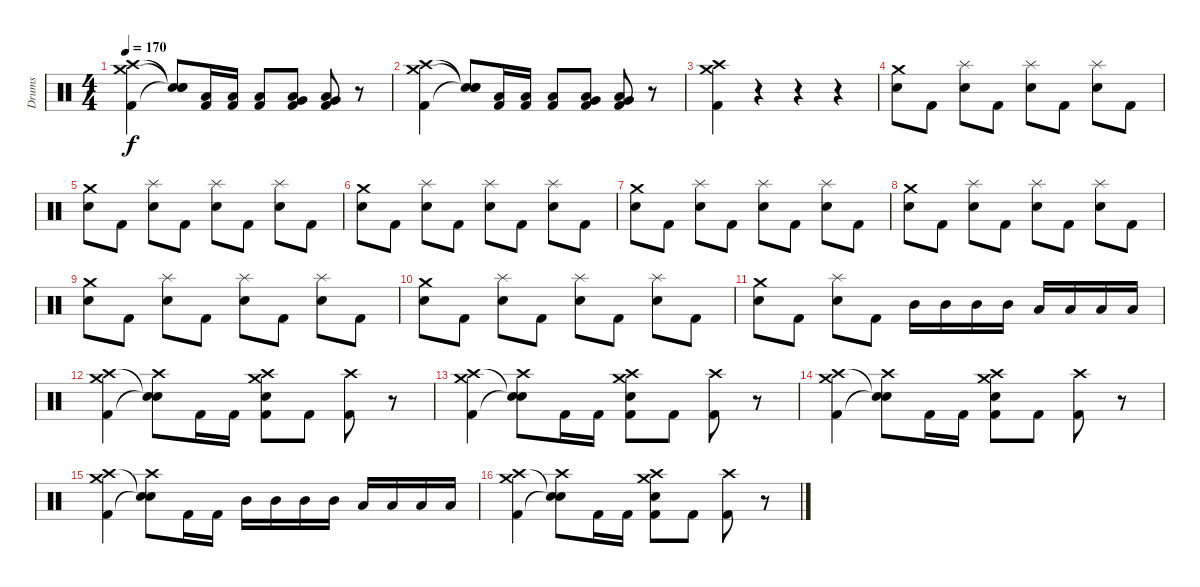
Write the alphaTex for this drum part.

\track ("Drums" "Drums") {instrument percussion}
\staff {score}
\articulation defaults
\ts (4 4)
\tempo 170
\clef neutral
\ks c
("Crash medium (hit)" "Crash high (hit)" "Kick (hit) 2").4{dy f} ("Snare (hit)"{t} "Snare (hit)"{t} "Snare (hit)"{t}).8 ("Low Tom (hit)" "Kick (hit) 2").16 ("Low Tom (hit)" "Kick (hit) 2").16 ("Low Tom (hit)" "Kick (hit) 2").8 ("Low Tom (hit)" "Very Low Tom (hit)" "Kick (hit) 2").8 ("Low Tom (hit)" "Very Low Tom (hit)" "Kick (hit) 2").8 r.8 |
("Crash medium (hit)" "Crash high (hit)" "Kick (hit) 2").4 ("Snare (hit)"{t} "Snare (hit)"{t} "Snare (hit)"{t}).8 ("Low Tom (hit)" "Kick (hit) 2").16 ("Low Tom (hit)" "Kick (hit) 2").16 ("Low Tom (hit)" "Kick (hit) 2").8 ("Low Tom (hit)" "Very Low Tom (hit)" "Kick (hit) 2").8 ("Low Tom (hit)" "Very Low Tom (hit)" "Kick (hit) 2").8 r.8 |
("Crash medium (hit)" "Crash high (hit)" "Kick (hit) 2").4 r.4 r.4 r.4 |
("Crash medium (hit)" "Snare (hit) 2").8 "Kick (hit) 2".8 ("Splash (hit)" "Snare (hit) 2").8 "Kick (hit) 2".8 ("Splash (hit)" "Snare (hit) 2").8 "Kick (hit) 2".8 ("Splash (hit)" "Snare (hit) 2").8 "Kick (hit) 2".8 |
("Crash medium (hit)" "Snare (hit) 2").8 "Kick (hit) 2".8 ("Splash (hit)" "Snare (hit) 2").8 "Kick (hit) 2".8 ("Splash (hit)" "Snare (hit) 2").8 "Kick (hit) 2".8 ("Splash (hit)" "Snare (hit) 2").8 "Kick (hit) 2".8 |
("Crash medium (hit)" "Snare (hit) 2").8 "Kick (hit) 2".8 ("Splash (hit)" "Snare (hit) 2").8 "Kick (hit) 2".8 ("Splash (hit)" "Snare (hit) 2").8 "Kick (hit) 2".8 ("Splash (hit)" "Snare (hit) 2").8 "Kick (hit) 2".8 |
("Crash medium (hit)" "Snare (hit) 2").8 "Kick (hit) 2".8 ("Splash (hit)" "Snare (hit) 2").8 "Kick (hit) 2".8 ("Splash (hit)" "Snare (hit) 2").8 "Kick (hit) 2".8 ("Splash (hit)" "Snare (hit) 2").8 "Kick (hit) 2".8 |
("Crash medium (hit)" "Snare (hit) 2").8 "Kick (hit) 2".8 ("Splash (hit)" "Snare (hit) 2").8 "Kick (hit) 2".8 ("Splash (hit)" "Snare (hit) 2").8 "Kick (hit) 2".8 ("Splash (hit)" "Snare (hit) 2").8 "Kick (hit) 2".8 |
("Crash medium (hit)" "Snare (hit) 2").8 "Kick (hit) 2".8 ("Splash (hit)" "Snare (hit) 2").8 "Kick (hit) 2".8 ("Splash (hit)" "Snare (hit) 2").8 "Kick (hit) 2".8 ("Splash (hit)" "Snare (hit) 2").8 "Kick (hit) 2".8 |
("Crash medium (hit)" "Snare (hit) 2").8 "Kick (hit) 2".8 ("Splash (hit)" "Snare (hit) 2").8 "Kick (hit) 2".8 ("Splash (hit)" "Snare (hit) 2").8 "Kick (hit) 2".8 ("Splash (hit)" "Snare (hit) 2").8 "Kick (hit) 2".8 |
("Crash medium (hit)" "Snare (hit) 2").8 "Kick (hit) 2".8 ("Splash (hit)" "Snare (hit) 2").8 "Kick (hit) 2".8 "Mid Tom (hit)".16 "Mid Tom (hit)".16 "Mid Tom (hit)".16 "Mid Tom (hit)".16 "Low Tom (hit)".16 "Low Tom (hit)".16 "Low Tom (hit)".16 "Low Tom (hit)".16 |
("Crash medium (hit)" "Crash high (hit)" "Kick (hit) 2").4 ("Crash high (hit)" "Snare (hit)"{t} "Snare (hit)"{t}).8 "Kick (hit) 2".16 "Kick (hit) 2".16 ("Crash high (hit)" "Snare (hit) 2" "Crash medium (hit)" "Kick (hit) 2").8 "Kick (hit) 2".8 ("Crash high (hit)" "Kick (hit) 2").8 r.8 |
("Crash medium (hit)" "Crash high (hit)" "Kick (hit) 2").4 ("Crash high (hit)" "Snare (hit)"{t} "Snare (hit)"{t}).8 "Kick (hit) 2".16 "Kick (hit) 2".16 ("Crash high (hit)" "Snare (hit) 2" "Crash medium (hit)" "Kick (hit) 2").8 "Kick (hit) 2".8 ("Crash high (hit)" "Kick (hit) 2").8 r.8 |
("Crash medium (hit)" "Crash high (hit)" "Kick (hit) 2").4 ("Crash high (hit)" "Snare (hit)"{t} "Snare (hit)"{t}).8 "Kick (hit) 2".16 "Kick (hit) 2".16 ("Crash high (hit)" "Snare (hit) 2" "Crash medium (hit)" "Kick (hit) 2").8 "Kick (hit) 2".8 ("Crash high (hit)" "Kick (hit) 2").8 r.8 |
("Crash medium (hit)" "Crash high (hit)" "Kick (hit) 2").4 ("Crash high (hit)" "Snare (hit)"{t} "Snare (hit)"{t}).8 "Kick (hit) 2".16 "Kick (hit) 2".16 "Mid Tom (hit)".16 "Mid Tom (hit)".16 "Mid Tom (hit)".16 "Mid Tom (hit)".16 "Low Tom (hit)".16 "Low Tom (hit)".16 "Low Tom (hit)".16 "Low Tom (hit)".16 |
("Crash medium (hit)" "Crash high (hit)" "Kick (hit) 2").4 ("Crash high (hit)" "Snare (hit)"{t} "Snare (hit)"{t}).8 "Kick (hit) 2".16 "Kick (hit) 2".16 ("Crash high (hit)" "Snare (hit) 2" "Crash medium (hit)" "Kick (hit) 2").8 "Kick (hit) 2".8 ("Crash high (hit)" "Kick (hit) 2").8 r.8
